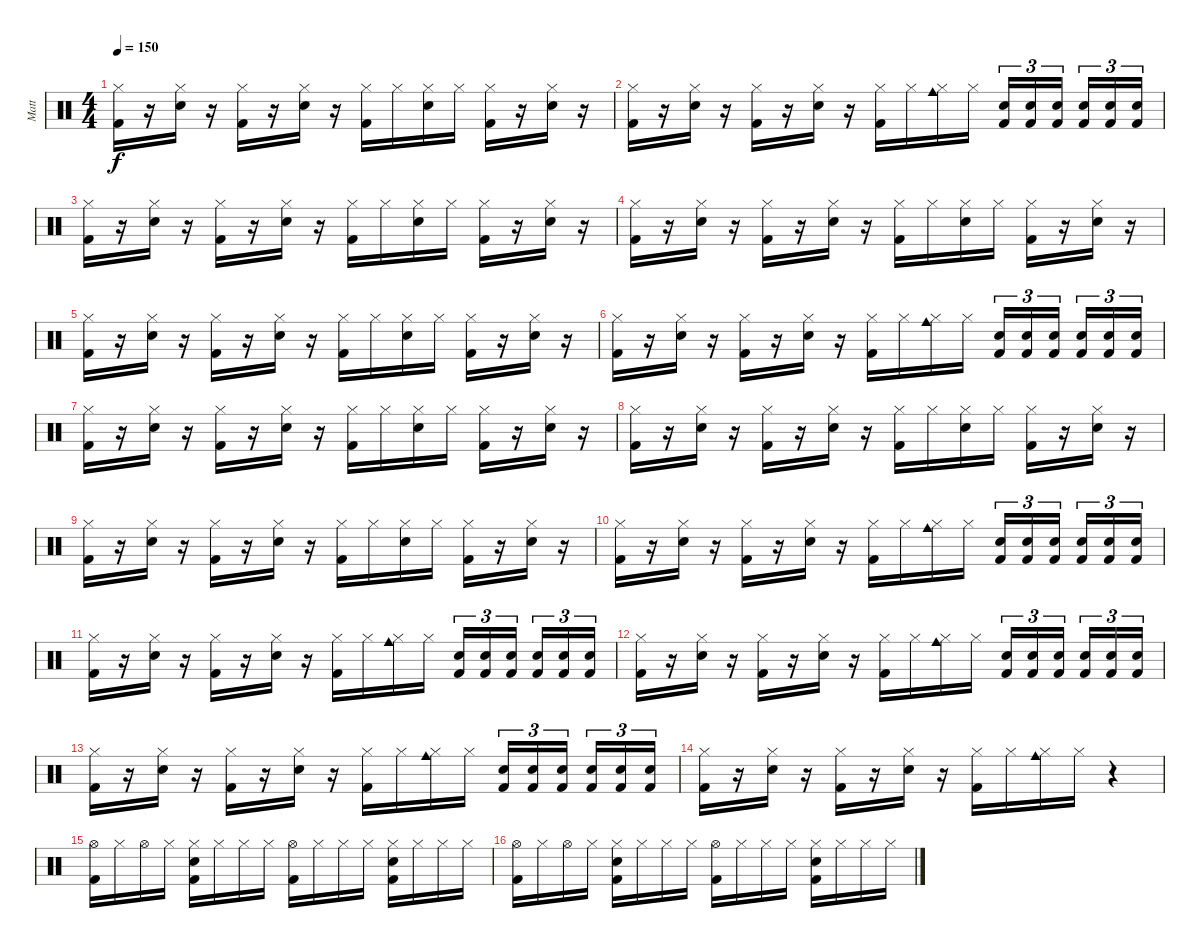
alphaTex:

\track ("Matt" "Matt") {instrument percussion}
\staff {score}
\articulation defaults
\ts (4 4)
\tempo 150
\clef neutral
\ks c
("Hi-Hat (closed)" "Kick (hit) 2").16{dy f} r.16 ("Hi-Hat (closed)" "Snare (hit) 2").16 r.16 ("Hi-Hat (closed)" "Kick (hit) 2").16 r.16 ("Hi-Hat (closed)" "Snare (hit) 2").16 r.16 ("Hi-Hat (closed)" "Kick (hit) 2").16 "Hi-Hat (closed)".16 ("Hi-Hat (closed)" "Snare (hit) 2").16 "Hi-Hat (closed)".16 ("Hi-Hat (closed)" "Kick (hit) 2").16 r.16 ("Hi-Hat (closed)" "Snare (hit) 2").16 r.16 |
("Hi-Hat (closed)" "Kick (hit) 2").16 r.16 ("Hi-Hat (closed)" "Snare (hit) 2").16 r.16 ("Hi-Hat (closed)" "Kick (hit) 2").16 r.16 ("Hi-Hat (closed)" "Snare (hit) 2").16 r.16 ("Hi-Hat (closed)" "Kick (hit) 2").16 "Hi-Hat (closed)".16 ("Hi-Hat (closed)" "Cowbell medium (hit)").16 "Hi-Hat (closed)".16 ("Snare (hit) 2" "Kick (hit) 2").16{tu (3 2)} ("Snare (hit) 2" "Kick (hit) 2").16{tu (3 2)} ("Snare (hit) 2" "Kick (hit) 2").16{tu (3 2)} ("Snare (hit) 2" "Kick (hit) 2").16{tu (3 2)} ("Snare (hit) 2" "Kick (hit) 2").16{tu (3 2)} ("Snare (hit) 2" "Kick (hit) 2").16{tu (3 2)} |
("Hi-Hat (closed)" "Kick (hit) 2").16 r.16 ("Hi-Hat (closed)" "Snare (hit) 2").16 r.16 ("Hi-Hat (closed)" "Kick (hit) 2").16 r.16 ("Hi-Hat (closed)" "Snare (hit) 2").16 r.16 ("Hi-Hat (closed)" "Kick (hit) 2").16 "Hi-Hat (closed)".16 ("Hi-Hat (closed)" "Snare (hit) 2").16 "Hi-Hat (closed)".16 ("Hi-Hat (closed)" "Kick (hit) 2").16 r.16 ("Hi-Hat (closed)" "Snare (hit) 2").16 r.16 |
("Hi-Hat (closed)" "Kick (hit) 2").16 r.16 ("Hi-Hat (closed)" "Snare (hit) 2").16 r.16 ("Hi-Hat (closed)" "Kick (hit) 2").16 r.16 ("Hi-Hat (closed)" "Snare (hit) 2").16 r.16 ("Hi-Hat (closed)" "Kick (hit) 2").16 "Hi-Hat (closed)".16 ("Hi-Hat (closed)" "Snare (hit) 2").16 "Hi-Hat (closed)".16 ("Hi-Hat (closed)" "Kick (hit) 2").16 r.16 ("Hi-Hat (closed)" "Snare (hit) 2").16 r.16 |
("Hi-Hat (closed)" "Kick (hit) 2").16 r.16 ("Hi-Hat (closed)" "Snare (hit) 2").16 r.16 ("Hi-Hat (closed)" "Kick (hit) 2").16 r.16 ("Hi-Hat (closed)" "Snare (hit) 2").16 r.16 ("Hi-Hat (closed)" "Kick (hit) 2").16 "Hi-Hat (closed)".16 ("Hi-Hat (closed)" "Snare (hit) 2").16 "Hi-Hat (closed)".16 ("Hi-Hat (closed)" "Kick (hit) 2").16 r.16 ("Hi-Hat (closed)" "Snare (hit) 2").16 r.16 |
("Hi-Hat (closed)" "Kick (hit) 2").16 r.16 ("Hi-Hat (closed)" "Snare (hit) 2").16 r.16 ("Hi-Hat (closed)" "Kick (hit) 2").16 r.16 ("Hi-Hat (closed)" "Snare (hit) 2").16 r.16 ("Hi-Hat (closed)" "Kick (hit) 2").16 "Hi-Hat (closed)".16 ("Hi-Hat (closed)" "Cowbell medium (hit)").16 "Hi-Hat (closed)".16 ("Snare (hit) 2" "Kick (hit) 2").16{tu (3 2)} ("Snare (hit) 2" "Kick (hit) 2").16{tu (3 2)} ("Snare (hit) 2" "Kick (hit) 2").16{tu (3 2)} ("Snare (hit) 2" "Kick (hit) 2").16{tu (3 2)} ("Snare (hit) 2" "Kick (hit) 2").16{tu (3 2)} ("Snare (hit) 2" "Kick (hit) 2").16{tu (3 2)} |
("Hi-Hat (closed)" "Kick (hit) 2").16 r.16 ("Hi-Hat (closed)" "Snare (hit) 2").16 r.16 ("Hi-Hat (closed)" "Kick (hit) 2").16 r.16 ("Hi-Hat (closed)" "Snare (hit) 2").16 r.16 ("Hi-Hat (closed)" "Kick (hit) 2").16 "Hi-Hat (closed)".16 ("Hi-Hat (closed)" "Snare (hit) 2").16 "Hi-Hat (closed)".16 ("Hi-Hat (closed)" "Kick (hit) 2").16 r.16 ("Hi-Hat (closed)" "Snare (hit) 2").16 r.16 |
("Hi-Hat (closed)" "Kick (hit) 2").16 r.16 ("Hi-Hat (closed)" "Snare (hit) 2").16 r.16 ("Hi-Hat (closed)" "Kick (hit) 2").16 r.16 ("Hi-Hat (closed)" "Snare (hit) 2").16 r.16 ("Hi-Hat (closed)" "Kick (hit) 2").16 "Hi-Hat (closed)".16 ("Hi-Hat (closed)" "Snare (hit) 2").16 "Hi-Hat (closed)".16 ("Hi-Hat (closed)" "Kick (hit) 2").16 r.16 ("Hi-Hat (closed)" "Snare (hit) 2").16 r.16 |
("Hi-Hat (closed)" "Kick (hit) 2").16 r.16 ("Hi-Hat (closed)" "Snare (hit) 2").16 r.16 ("Hi-Hat (closed)" "Kick (hit) 2").16 r.16 ("Hi-Hat (closed)" "Snare (hit) 2").16 r.16 ("Hi-Hat (closed)" "Kick (hit) 2").16 "Hi-Hat (closed)".16 ("Hi-Hat (closed)" "Snare (hit) 2").16 "Hi-Hat (closed)".16 ("Hi-Hat (closed)" "Kick (hit) 2").16 r.16 ("Hi-Hat (closed)" "Snare (hit) 2").16 r.16 |
("Hi-Hat (closed)" "Kick (hit) 2").16 r.16 ("Hi-Hat (closed)" "Snare (hit) 2").16 r.16 ("Hi-Hat (closed)" "Kick (hit) 2").16 r.16 ("Hi-Hat (closed)" "Snare (hit) 2").16 r.16 ("Hi-Hat (closed)" "Kick (hit) 2").16 "Hi-Hat (closed)".16 ("Hi-Hat (closed)" "Cowbell medium (hit)").16 "Hi-Hat (closed)".16 ("Snare (hit) 2" "Kick (hit) 2").16{tu (3 2)} ("Snare (hit) 2" "Kick (hit) 2").16{tu (3 2)} ("Snare (hit) 2" "Kick (hit) 2").16{tu (3 2)} ("Snare (hit) 2" "Kick (hit) 2").16{tu (3 2)} ("Snare (hit) 2" "Kick (hit) 2").16{tu (3 2)} ("Snare (hit) 2" "Kick (hit) 2").16{tu (3 2)} |
("Hi-Hat (closed)" "Kick (hit) 2").16 r.16 ("Hi-Hat (closed)" "Snare (hit) 2").16 r.16 ("Hi-Hat (closed)" "Kick (hit) 2").16 r.16 ("Hi-Hat (closed)" "Snare (hit) 2").16 r.16 ("Hi-Hat (closed)" "Kick (hit) 2").16 "Hi-Hat (closed)".16 ("Hi-Hat (closed)" "Cowbell medium (hit)").16 "Hi-Hat (closed)".16 ("Snare (hit) 2" "Kick (hit) 2").16{tu (3 2)} ("Snare (hit) 2" "Kick (hit) 2").16{tu (3 2)} ("Snare (hit) 2" "Kick (hit) 2").16{tu (3 2)} ("Snare (hit) 2" "Kick (hit) 2").16{tu (3 2)} ("Snare (hit) 2" "Kick (hit) 2").16{tu (3 2)} ("Snare (hit) 2" "Kick (hit) 2").16{tu (3 2)} |
("Hi-Hat (closed)" "Kick (hit) 2").16 r.16 ("Hi-Hat (closed)" "Snare (hit) 2").16 r.16 ("Hi-Hat (closed)" "Kick (hit) 2").16 r.16 ("Hi-Hat (closed)" "Snare (hit) 2").16 r.16 ("Hi-Hat (closed)" "Kick (hit) 2").16 "Hi-Hat (closed)".16 ("Hi-Hat (closed)" "Cowbell medium (hit)").16 "Hi-Hat (closed)".16 ("Snare (hit) 2" "Kick (hit) 2").16{tu (3 2)} ("Snare (hit) 2" "Kick (hit) 2").16{tu (3 2)} ("Snare (hit) 2" "Kick (hit) 2").16{tu (3 2)} ("Snare (hit) 2" "Kick (hit) 2").16{tu (3 2)} ("Snare (hit) 2" "Kick (hit) 2").16{tu (3 2)} ("Snare (hit) 2" "Kick (hit) 2").16{tu (3 2)} |
("Hi-Hat (closed)" "Kick (hit) 2").16 r.16 ("Hi-Hat (closed)" "Snare (hit) 2").16 r.16 ("Hi-Hat (closed)" "Kick (hit) 2").16 r.16 ("Hi-Hat (closed)" "Snare (hit) 2").16 r.16 ("Hi-Hat (closed)" "Kick (hit) 2").16 "Hi-Hat (closed)".16 ("Hi-Hat (closed)" "Cowbell medium (hit)").16 "Hi-Hat (closed)".16 ("Snare (hit) 2" "Kick (hit) 2").16{tu (3 2)} ("Snare (hit) 2" "Kick (hit) 2").16{tu (3 2)} ("Snare (hit) 2" "Kick (hit) 2").16{tu (3 2)} ("Snare (hit) 2" "Kick (hit) 2").16{tu (3 2)} ("Snare (hit) 2" "Kick (hit) 2").16{tu (3 2)} ("Snare (hit) 2" "Kick (hit) 2").16{tu (3 2)} |
("Hi-Hat (closed)" "Kick (hit) 2").16 r.16 ("Hi-Hat (closed)" "Snare (hit) 2").16 r.16 ("Hi-Hat (closed)" "Kick (hit) 2").16 r.16 ("Hi-Hat (closed)" "Snare (hit) 2").16 r.16 ("Hi-Hat (closed)" "Kick (hit) 2").16 "Hi-Hat (closed)".16 ("Hi-Hat (closed)" "Cowbell medium (hit)").16 "Hi-Hat (closed)".16 r.4 |
("Hi-Hat (open)" "Kick (hit) 2").16{volume 16} "Hi-Hat (closed)".16 "Hi-Hat (open)".16 "Hi-Hat (closed)".16 ("Hi-Hat (closed)" "Snare (hit) 2" "Kick (hit) 2").16 "Hi-Hat (closed)".16 "Hi-Hat (closed)".16 "Hi-Hat (closed)".16 ("Hi-Hat (open)" "Kick (hit) 2").16 "Hi-Hat (closed)".16 "Hi-Hat (closed)".16 "Hi-Hat (closed)".16 ("Hi-Hat (closed)" "Snare (hit) 2" "Kick (hit) 2").16 "Hi-Hat (closed)".16 "Hi-Hat (closed)".16 "Hi-Hat (closed)".16 |
("Hi-Hat (open)" "Kick (hit) 2").16{volume 16} "Hi-Hat (closed)".16 "Hi-Hat (open)".16 "Hi-Hat (closed)".16 ("Hi-Hat (closed)" "Snare (hit) 2" "Kick (hit) 2").16 "Hi-Hat (closed)".16 "Hi-Hat (closed)".16 "Hi-Hat (closed)".16 ("Hi-Hat (open)" "Kick (hit) 2").16 "Hi-Hat (closed)".16 "Hi-Hat (closed)".16 "Hi-Hat (closed)".16 ("Hi-Hat (closed)" "Snare (hit) 2" "Kick (hit) 2").16 "Hi-Hat (closed)".16 "Hi-Hat (closed)".16 "Hi-Hat (closed)".16
